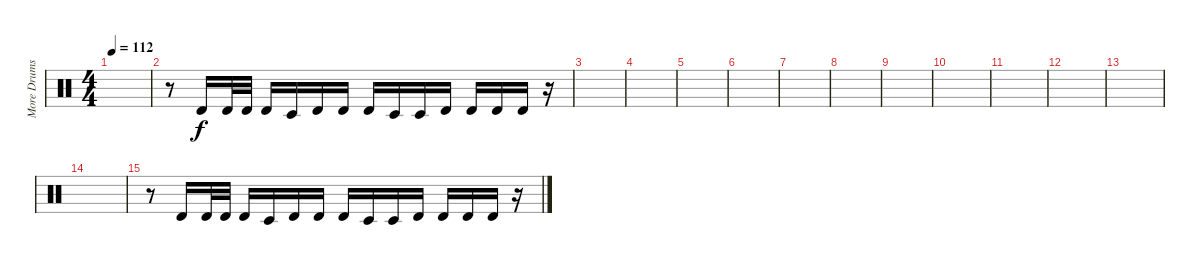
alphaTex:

\track ("More Drums" "More Drums") {instrument percussion}
\staff {score}
\articulation defaults
\ts (4 4)
\tempo 112
\clef neutral
\ks c
|
r.8 "Timbale high (hit)".16 "Timbale high (hit)".32 "Timbale high (hit)".32 "Timbale high (hit)".16 "Timbale low (hit)".16 "Timbale high (hit)".16 "Timbale high (hit)".16 "Timbale high (hit)".16 "Timbale low (hit)".16 "Timbale low (hit)".16 "Timbale high (hit)".16 "Timbale high (hit)".16 "Timbale high (hit)".16 "Timbale high (hit)".16 r.16 |
|
|
|
|
|
|
|
|
|
|
|
|
r.8 "Timbale high (hit)".16 "Timbale high (hit)".32 "Timbale high (hit)".32 "Timbale high (hit)".16 "Timbale low (hit)".16 "Timbale high (hit)".16 "Timbale high (hit)".16 "Timbale high (hit)".16 "Timbale low (hit)".16 "Timbale low (hit)".16 "Timbale high (hit)".16 "Timbale high (hit)".16 "Timbale high (hit)".16 "Timbale high (hit)".16 r.16
